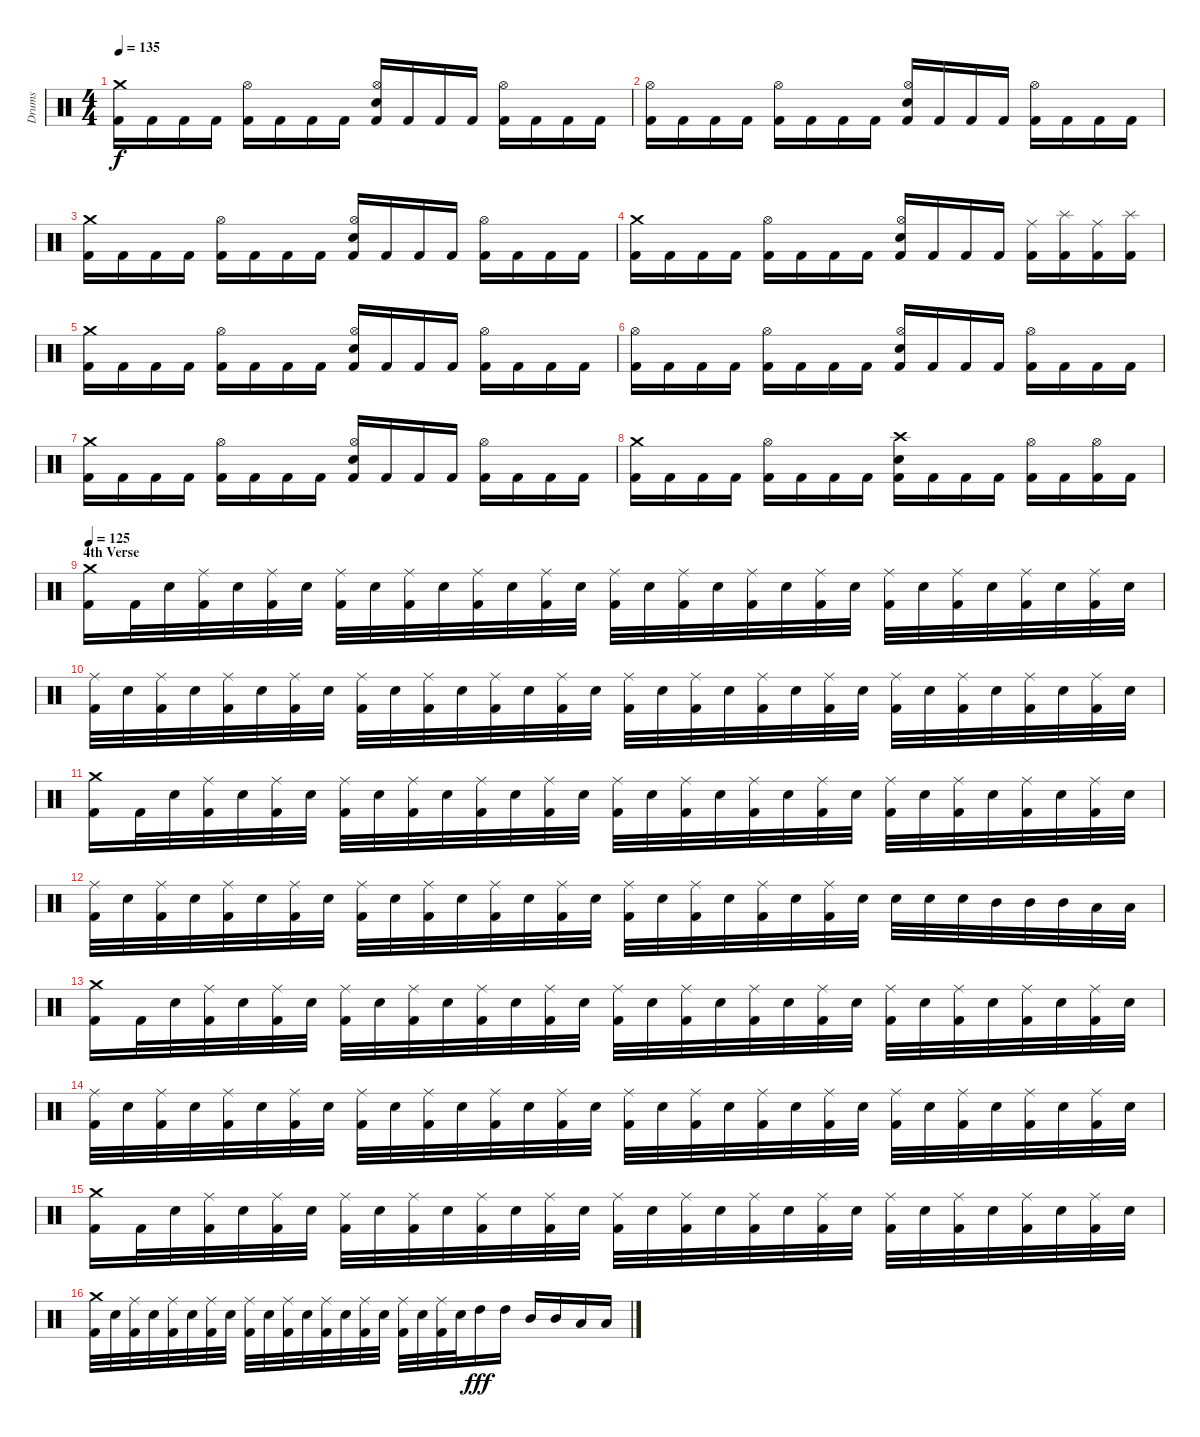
\track ("Drums" "Drums") {instrument percussion}
\staff {score}
\articulation defaults
\ts (4 4)
\tempo 135
\clef neutral
\ks c
("Kick (hit) 2" "Crash medium (hit)").16{dy f} "Kick (hit) 2".16 "Kick (hit) 2".16 "Kick (hit) 2".16 ("Kick (hit) 2" "Hi-Hat (open)").16 "Kick (hit) 2".16 "Kick (hit) 2".16 "Kick (hit) 2".16 ("Kick (hit) 2" "Electric Snare (hit)" "Hi-Hat (open)").16 "Kick (hit) 2".16 "Kick (hit) 2".16 "Kick (hit) 2".16 ("Kick (hit) 2" "Hi-Hat (open)").16 "Kick (hit) 2".16 "Kick (hit) 2".16 "Kick (hit) 2".16 |
("Kick (hit) 2" "Hi-Hat (open)").16 "Kick (hit) 2".16 "Kick (hit) 2".16 "Kick (hit) 2".16 ("Kick (hit) 2" "Hi-Hat (open)").16 "Kick (hit) 2".16 "Kick (hit) 2".16 "Kick (hit) 2".16 ("Kick (hit) 2" "Electric Snare (hit)" "Hi-Hat (open)").16 "Kick (hit) 2".16 "Kick (hit) 2".16 "Kick (hit) 2".16 ("Kick (hit) 2" "Hi-Hat (open)").16 "Kick (hit) 2".16 "Kick (hit) 2".16 "Kick (hit) 2".16 |
("Kick (hit) 2" "Crash medium (hit)").16 "Kick (hit) 2".16 "Kick (hit) 2".16 "Kick (hit) 2".16 ("Kick (hit) 2" "Hi-Hat (open)").16 "Kick (hit) 2".16 "Kick (hit) 2".16 "Kick (hit) 2".16 ("Kick (hit) 2" "Electric Snare (hit)" "Hi-Hat (open)").16 "Kick (hit) 2".16 "Kick (hit) 2".16 "Kick (hit) 2".16 ("Kick (hit) 2" "Hi-Hat (open)").16 "Kick (hit) 2".16 "Kick (hit) 2".16 "Kick (hit) 2".16 |
("Kick (hit) 2" "Crash medium (hit)").16 "Kick (hit) 2".16 "Kick (hit) 2".16 "Kick (hit) 2".16 ("Kick (hit) 2" "Hi-Hat (open)").16 "Kick (hit) 2".16 "Kick (hit) 2".16 "Kick (hit) 2".16 ("Kick (hit) 2" "Electric Snare (hit)" "Hi-Hat (open)").16 "Kick (hit) 2".16 "Kick (hit) 2".16 "Kick (hit) 2".16 ("Kick (hit) 2" "Ride (middle)").16 ("Kick (hit) 2" "Splash (hit)").16 ("Kick (hit) 2" "Ride (middle)").16 ("Kick (hit) 2" "Splash (hit)").16 |
("Kick (hit) 2" "Crash medium (hit)").16 "Kick (hit) 2".16 "Kick (hit) 2".16 "Kick (hit) 2".16 ("Kick (hit) 2" "Hi-Hat (open)").16 "Kick (hit) 2".16 "Kick (hit) 2".16 "Kick (hit) 2".16 ("Kick (hit) 2" "Electric Snare (hit)" "Hi-Hat (open)").16 "Kick (hit) 2".16 "Kick (hit) 2".16 "Kick (hit) 2".16 ("Kick (hit) 2" "Hi-Hat (open)").16 "Kick (hit) 2".16 "Kick (hit) 2".16 "Kick (hit) 2".16 |
("Kick (hit) 2" "Hi-Hat (open)").16 "Kick (hit) 2".16 "Kick (hit) 2".16 "Kick (hit) 2".16 ("Kick (hit) 2" "Hi-Hat (open)").16 "Kick (hit) 2".16 "Kick (hit) 2".16 "Kick (hit) 2".16 ("Kick (hit) 2" "Electric Snare (hit)" "Hi-Hat (open)").16 "Kick (hit) 2".16 "Kick (hit) 2".16 "Kick (hit) 2".16 ("Kick (hit) 2" "Hi-Hat (open)").16 "Kick (hit) 2".16 "Kick (hit) 2".16 "Kick (hit) 2".16 |
("Kick (hit) 2" "Crash medium (hit)").16 "Kick (hit) 2".16 "Kick (hit) 2".16 "Kick (hit) 2".16 ("Kick (hit) 2" "Hi-Hat (open)").16 "Kick (hit) 2".16 "Kick (hit) 2".16 "Kick (hit) 2".16 ("Kick (hit) 2" "Electric Snare (hit)" "Hi-Hat (open)").16 "Kick (hit) 2".16 "Kick (hit) 2".16 "Kick (hit) 2".16 ("Kick (hit) 2" "Hi-Hat (open)").16 "Kick (hit) 2".16 "Kick (hit) 2".16 "Kick (hit) 2".16 |
("Kick (hit) 2" "Crash medium (hit)").16 "Kick (hit) 2".16 "Kick (hit) 2".16 "Kick (hit) 2".16 ("Kick (hit) 2" "Hi-Hat (open)").16 "Kick (hit) 2".16 "Kick (hit) 2".16 "Kick (hit) 2".16 ("Kick (hit) 2" "Electric Snare (hit)" "Crash high (hit)").16 "Kick (hit) 2".16 "Kick (hit) 2".16 "Kick (hit) 2".16 ("Kick (hit) 2" "Hi-Hat (open)").16 "Kick (hit) 2".16 ("Kick (hit) 2" "Hi-Hat (open)").16 "Kick (hit) 2".16 |
\section ("" "4th Verse")
\tempo 125
("Kick (hit) 2" "Crash medium (hit)").16 "Kick (hit) 2".32 "Electric Snare (hit)".32 ("Kick (hit) 2" "Ride (middle)").32 "Electric Snare (hit)".32 ("Kick (hit) 2" "Ride (middle)").32 "Electric Snare (hit)".32 ("Kick (hit) 2" "Ride (middle)").32 "Electric Snare (hit)".32 ("Kick (hit) 2" "Ride (middle)").32 "Electric Snare (hit)".32 ("Kick (hit) 2" "Ride (middle)").32 "Electric Snare (hit)".32 ("Kick (hit) 2" "Ride (middle)").32 "Electric Snare (hit)".32 ("Kick (hit) 2" "Ride (middle)").32 "Electric Snare (hit)".32 ("Kick (hit) 2" "Ride (middle)").32 "Electric Snare (hit)".32 ("Kick (hit) 2" "Ride (middle)").32 "Electric Snare (hit)".32 ("Kick (hit) 2" "Ride (middle)").32 "Electric Snare (hit)".32 ("Kick (hit) 2" "Ride (middle)").32 "Electric Snare (hit)".32 ("Kick (hit) 2" "Ride (middle)").32 "Electric Snare (hit)".32 ("Kick (hit) 2" "Ride (middle)").32 "Electric Snare (hit)".32 ("Kick (hit) 2" "Ride (middle)").32 "Electric Snare (hit)".32 |
("Kick (hit) 2" "Ride (middle)").32 "Electric Snare (hit)".32 ("Kick (hit) 2" "Ride (middle)").32 "Electric Snare (hit)".32 ("Kick (hit) 2" "Ride (middle)").32 "Electric Snare (hit)".32 ("Kick (hit) 2" "Ride (middle)").32 "Electric Snare (hit)".32 ("Kick (hit) 2" "Ride (middle)").32 "Electric Snare (hit)".32 ("Kick (hit) 2" "Ride (middle)").32 "Electric Snare (hit)".32 ("Kick (hit) 2" "Ride (middle)").32 "Electric Snare (hit)".32 ("Kick (hit) 2" "Ride (middle)").32 "Electric Snare (hit)".32 ("Kick (hit) 2" "Ride (middle)").32 "Electric Snare (hit)".32 ("Kick (hit) 2" "Ride (middle)").32 "Electric Snare (hit)".32 ("Kick (hit) 2" "Ride (middle)").32 "Electric Snare (hit)".32 ("Kick (hit) 2" "Ride (middle)").32 "Electric Snare (hit)".32 ("Kick (hit) 2" "Ride (middle)").32 "Electric Snare (hit)".32 ("Kick (hit) 2" "Ride (middle)").32 "Electric Snare (hit)".32 ("Kick (hit) 2" "Ride (middle)").32 "Electric Snare (hit)".32 ("Kick (hit) 2" "Ride (middle)").32 "Electric Snare (hit)".32 |
("Kick (hit) 2" "Crash medium (hit)").16 "Kick (hit) 2".32 "Electric Snare (hit)".32 ("Kick (hit) 2" "Ride (middle)").32 "Electric Snare (hit)".32 ("Kick (hit) 2" "Ride (middle)").32 "Electric Snare (hit)".32 ("Kick (hit) 2" "Ride (middle)").32 "Electric Snare (hit)".32 ("Kick (hit) 2" "Ride (middle)").32 "Electric Snare (hit)".32 ("Kick (hit) 2" "Ride (middle)").32 "Electric Snare (hit)".32 ("Kick (hit) 2" "Ride (middle)").32 "Electric Snare (hit)".32 ("Kick (hit) 2" "Ride (middle)").32 "Electric Snare (hit)".32 ("Kick (hit) 2" "Ride (middle)").32 "Electric Snare (hit)".32 ("Kick (hit) 2" "Ride (middle)").32 "Electric Snare (hit)".32 ("Kick (hit) 2" "Ride (middle)").32 "Electric Snare (hit)".32 ("Kick (hit) 2" "Ride (middle)").32 "Electric Snare (hit)".32 ("Kick (hit) 2" "Ride (middle)").32 "Electric Snare (hit)".32 ("Kick (hit) 2" "Ride (middle)").32 "Electric Snare (hit)".32 ("Kick (hit) 2" "Ride (middle)").32 "Electric Snare (hit)".32 |
("Kick (hit) 2" "Ride (middle)").32 "Electric Snare (hit)".32 ("Kick (hit) 2" "Ride (middle)").32 "Electric Snare (hit)".32 ("Kick (hit) 2" "Ride (middle)").32 "Electric Snare (hit)".32 ("Kick (hit) 2" "Ride (middle)").32 "Electric Snare (hit)".32 ("Kick (hit) 2" "Ride (middle)").32 "Electric Snare (hit)".32 ("Kick (hit) 2" "Ride (middle)").32 "Electric Snare (hit)".32 ("Kick (hit) 2" "Ride (middle)").32 "Electric Snare (hit)".32 ("Kick (hit) 2" "Ride (middle)").32 "Electric Snare (hit)".32 ("Kick (hit) 2" "Ride (middle)").32 "Electric Snare (hit)".32 ("Kick (hit) 2" "Ride (middle)").32 "Electric Snare (hit)".32 ("Kick (hit) 2" "Ride (middle)").32 "Electric Snare (hit)".32 ("Kick (hit) 2" "Ride (middle)").32 "Electric Snare (hit)".32 "Electric Snare (hit)".32 "Electric Snare (hit)".32 "Electric Snare (hit)".32 "Mid Tom (hit)".32 "Mid Tom (hit)".32 "Mid Tom (hit)".32 "Low Tom (hit)".32 "Low Tom (hit)".32 |
("Kick (hit) 2" "Crash medium (hit)").16 "Kick (hit) 2".32 "Electric Snare (hit)".32 ("Kick (hit) 2" "Ride (middle)").32 "Electric Snare (hit)".32 ("Kick (hit) 2" "Ride (middle)").32 "Electric Snare (hit)".32 ("Kick (hit) 2" "Ride (middle)").32 "Electric Snare (hit)".32 ("Kick (hit) 2" "Ride (middle)").32 "Electric Snare (hit)".32 ("Kick (hit) 2" "Ride (middle)").32 "Electric Snare (hit)".32 ("Kick (hit) 2" "Ride (middle)").32 "Electric Snare (hit)".32 ("Kick (hit) 2" "Ride (middle)").32 "Electric Snare (hit)".32 ("Kick (hit) 2" "Ride (middle)").32 "Electric Snare (hit)".32 ("Kick (hit) 2" "Ride (middle)").32 "Electric Snare (hit)".32 ("Kick (hit) 2" "Ride (middle)").32 "Electric Snare (hit)".32 ("Kick (hit) 2" "Ride (middle)").32 "Electric Snare (hit)".32 ("Kick (hit) 2" "Ride (middle)").32 "Electric Snare (hit)".32 ("Kick (hit) 2" "Ride (middle)").32 "Electric Snare (hit)".32 ("Kick (hit) 2" "Ride (middle)").32 "Electric Snare (hit)".32 |
("Kick (hit) 2" "Ride (middle)").32 "Electric Snare (hit)".32 ("Kick (hit) 2" "Ride (middle)").32 "Electric Snare (hit)".32 ("Kick (hit) 2" "Ride (middle)").32 "Electric Snare (hit)".32 ("Kick (hit) 2" "Ride (middle)").32 "Electric Snare (hit)".32 ("Kick (hit) 2" "Ride (middle)").32 "Electric Snare (hit)".32 ("Kick (hit) 2" "Ride (middle)").32 "Electric Snare (hit)".32 ("Kick (hit) 2" "Ride (middle)").32 "Electric Snare (hit)".32 ("Kick (hit) 2" "Ride (middle)").32 "Electric Snare (hit)".32 ("Kick (hit) 2" "Ride (middle)").32 "Electric Snare (hit)".32 ("Kick (hit) 2" "Ride (middle)").32 "Electric Snare (hit)".32 ("Kick (hit) 2" "Ride (middle)").32 "Electric Snare (hit)".32 ("Kick (hit) 2" "Ride (middle)").32 "Electric Snare (hit)".32 ("Kick (hit) 2" "Ride (middle)").32 "Electric Snare (hit)".32 ("Kick (hit) 2" "Ride (middle)").32 "Electric Snare (hit)".32 ("Kick (hit) 2" "Ride (middle)").32 "Electric Snare (hit)".32 ("Kick (hit) 2" "Ride (middle)").32 "Electric Snare (hit)".32 |
("Kick (hit) 2" "Crash medium (hit)").16 "Kick (hit) 2".32 "Electric Snare (hit)".32 ("Kick (hit) 2" "Ride (middle)").32 "Electric Snare (hit)".32 ("Kick (hit) 2" "Ride (middle)").32 "Electric Snare (hit)".32 ("Kick (hit) 2" "Ride (middle)").32 "Electric Snare (hit)".32 ("Kick (hit) 2" "Ride (middle)").32 "Electric Snare (hit)".32 ("Kick (hit) 2" "Ride (middle)").32 "Electric Snare (hit)".32 ("Kick (hit) 2" "Ride (middle)").32 "Electric Snare (hit)".32 ("Kick (hit) 2" "Ride (middle)").32 "Electric Snare (hit)".32 ("Kick (hit) 2" "Ride (middle)").32 "Electric Snare (hit)".32 ("Kick (hit) 2" "Ride (middle)").32 "Electric Snare (hit)".32 ("Kick (hit) 2" "Ride (middle)").32 "Electric Snare (hit)".32 ("Kick (hit) 2" "Ride (middle)").32 "Electric Snare (hit)".32 ("Kick (hit) 2" "Ride (middle)").32 "Electric Snare (hit)".32 ("Kick (hit) 2" "Ride (middle)").32 "Electric Snare (hit)".32 ("Kick (hit) 2" "Ride (middle)").32 "Electric Snare (hit)".32 |
("Kick (hit) 2" "Crash medium (hit)").32 "Electric Snare (hit)".32 ("Kick (hit) 2" "Ride (middle)").32 "Electric Snare (hit)".32 ("Kick (hit) 2" "Ride (middle)").32 "Electric Snare (hit)".32 ("Kick (hit) 2" "Ride (middle)").32 "Electric Snare (hit)".32 ("Kick (hit) 2" "Ride (middle)").32 "Electric Snare (hit)".32 ("Kick (hit) 2" "Ride (middle)").32 "Electric Snare (hit)".32 ("Kick (hit) 2" "Ride (middle)").32 "Electric Snare (hit)".32 ("Kick (hit) 2" "Ride (middle)").32 "Electric Snare (hit)".32 ("Kick (hit) 2" "Ride (middle)").32 "Electric Snare (hit)".32 ("Kick (hit) 2" "Ride (middle)").32 "Electric Snare (hit)".32 "High Tom (hit)".16{dy fff} "High Tom (hit)".16 "Mid Tom (hit)".16 "Mid Tom (hit)".16 "Low Tom (hit)".16 "Low Tom (hit)".16
